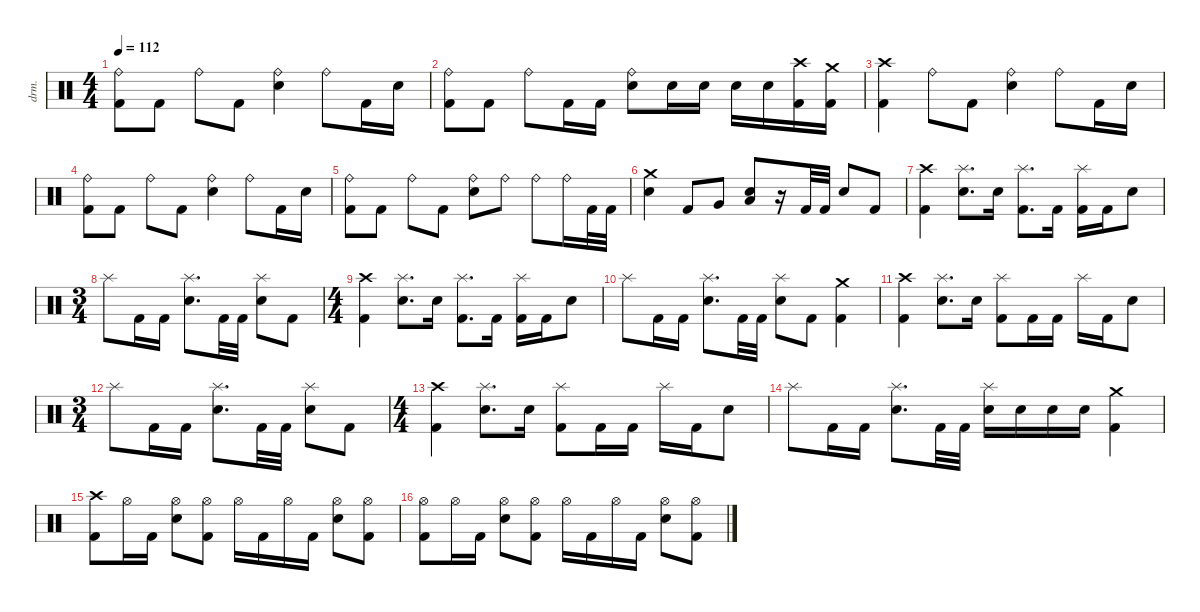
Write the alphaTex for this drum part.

\defaultSystemsLayout 4
\hideDynamics
\bracketExtendMode nobrackets
\otherSystemsTrackNameOrientation horizontal
\track ("Mike Portnoy" "drm.") {instrument percussion}
\staff {score}
\articulation defaults
\ts (4 4)
\tempo 112
\clef neutral
\ks c
("Kick (hit) 2" "Ride (bell)").8{dy f beam Down} "Kick (hit) 2".8{beam Down} "Ride (bell)".8{beam Down} "Kick (hit) 2".8{beam Down} ("Snare (hit) 2" "Ride (bell)").4{beam Down} "Ride (bell)".8{beam Down} "Kick (hit) 2".16{beam Down} "Snare (hit) 2".16{beam Down} |
("Kick (hit) 2" "Ride (bell)").8{beam Down} "Kick (hit) 2".8{beam Down} "Ride (bell)".8{beam Down} "Kick (hit) 2".16{beam Down} "Kick (hit) 2".16{beam Down} ("Snare (hit) 2" "Ride (bell)").8{beam Down} "Snare (hit) 2".16{beam Down} "Snare (hit) 2".16{beam Down} "Snare (hit) 2".16{beam Down} "Snare (hit) 2".16{beam Down} ("Kick (hit) 2" "Crash high (hit)").16{beam Down} ("Kick (hit) 2" "Crash medium (hit)").16{beam Down} |
("Kick (hit) 2" "Crash high (hit)").4{beam Down} "Ride (bell)".8{beam Down} "Kick (hit) 2".8{beam Down} ("Snare (hit) 2" "Ride (bell)").4{beam Down} "Ride (bell)".8{beam Down} "Kick (hit) 2".16{beam Down} "Snare (hit) 2".16{beam Down} |
("Kick (hit) 2" "Ride (bell)").8{beam Down} "Kick (hit) 2".8{beam Down} "Ride (bell)".8{beam Down} "Kick (hit) 2".8{beam Down} ("Snare (hit) 2" "Ride (bell)").4{beam Down} "Ride (bell)".8{beam Down} "Kick (hit) 2".16{beam Down} "Snare (hit) 2".16{beam Down} |
("Kick (hit) 2" "Ride (bell)").8{beam Down} "Kick (hit) 2".8{beam Down} "Ride (bell)".8{beam Down} "Kick (hit) 2".8{beam Down} ("Snare (hit) 2" "Ride (bell)").8{beam Down} "Ride (bell)".8{beam Down} "Ride (bell)".8{beam Down} "Ride (bell)".16{beam Down} "Kick (hit) 2".32{beam Down} "Kick (hit) 2".32{beam Down} |
("Snare (hit) 2" "Crash medium (hit)").4{beam Down} "Kick (hit) 2".8{beam Up} "Very Low Tom (hit)".8{beam Up} ("Snare (hit) 2" "Low Tom (hit)").8{beam Up} r.16{beam Up} "Kick (hit) 2".32{beam Up} "Kick (hit) 2".32{beam Up} "Snare (hit) 2".8{beam Up} "Kick (hit) 2".8{beam Up} |
("Kick (hit) 2" "Crash high (hit)").4{beam Down} ("Snare (hit) 2" "Splash (hit)").8{d beam Down} "Snare (hit) 2".16{beam Down} ("Kick (hit) 2" "Splash (hit)").8{d beam Down} "Kick (hit) 2".16{beam Down} ("Kick (hit) 2" "Splash (hit)").16{beam Down} "Kick (hit) 2".16{beam Down} "Snare (hit) 2".8{beam Down} |
\ts (3 4)
\beaming (8 2 2 2)
"Splash (hit)".8{beam Down} "Kick (hit) 2".16{beam Down} "Kick (hit) 2".16{beam Down} ("Snare (hit) 2" "Splash (hit)").8{d beam Down} "Kick (hit) 2".32{beam Down} "Kick (hit) 2".32{beam Down} ("Snare (hit) 2" "Splash (hit)").8{beam Down} "Kick (hit) 2".8{beam Down} |
\ts (4 4)
\beaming (8 2 2 2 2)
("Kick (hit) 2" "Crash high (hit)").4{beam Down} ("Snare (hit) 2" "Splash (hit)").8{d beam Down} "Snare (hit) 2".16{beam Down} ("Kick (hit) 2" "Splash (hit)").8{d beam Down} "Kick (hit) 2".16{beam Down} ("Kick (hit) 2" "Splash (hit)").16{beam Down} "Kick (hit) 2".16{beam Down} "Snare (hit) 2".8{beam Down} |
"Splash (hit)".8{beam Down} "Kick (hit) 2".16{beam Down} "Kick (hit) 2".16{beam Down} ("Snare (hit) 2" "Splash (hit)").8{d beam Down} "Kick (hit) 2".32{beam Down} "Kick (hit) 2".32{beam Down} ("Snare (hit) 2" "Splash (hit)").8{beam Down} "Kick (hit) 2".8{beam Down} ("Kick (hit) 2" "Crash medium (hit)").4{beam Down} |
("Kick (hit) 2" "Crash high (hit)").4{beam Down} ("Snare (hit) 2" "Splash (hit)").8{d beam Down} "Snare (hit) 2".16{beam Down} ("Kick (hit) 2" "Splash (hit)").8{beam Down} "Kick (hit) 2".16{beam Down} "Kick (hit) 2".16{beam Down} "Splash (hit)".16{beam Down} "Kick (hit) 2".16{beam Down} "Snare (hit) 2".8{beam Down} |
\ts (3 4)
\beaming (8 2 2 2)
"Splash (hit)".8{beam Down} "Kick (hit) 2".16{beam Down} "Kick (hit) 2".16{beam Down} ("Snare (hit) 2" "Splash (hit)").8{d beam Down} "Kick (hit) 2".32{beam Down} "Kick (hit) 2".32{beam Down} ("Snare (hit) 2" "Splash (hit)").8{beam Down} "Kick (hit) 2".8{beam Down} |
\ts (4 4)
\beaming (8 2 2 2 2)
("Kick (hit) 2" "Crash high (hit)").4{beam Down} ("Snare (hit) 2" "Splash (hit)").8{d beam Down} "Snare (hit) 2".16{beam Down} ("Kick (hit) 2" "Splash (hit)").8{beam Down} "Kick (hit) 2".16{beam Down} "Kick (hit) 2".16{beam Down} "Splash (hit)".16{beam Down} "Kick (hit) 2".16{beam Down} "Snare (hit) 2".8{beam Down} |
"Splash (hit)".8{beam Down} "Kick (hit) 2".16{beam Down} "Kick (hit) 2".16{beam Down} ("Snare (hit) 2" "Splash (hit)").8{d beam Down} "Kick (hit) 2".32{beam Down} "Kick (hit) 2".32{beam Down} ("Snare (hit) 2" "Splash (hit)").16{beam Down} "Snare (hit) 2".16{beam Down} "Snare (hit) 2".16{beam Down} "Snare (hit) 2".16{beam Down} ("Kick (hit) 2" "Crash medium (hit)").4{beam Down} |
("Kick (hit) 2" "Crash high (hit)").8{beam Down} "Hi-Hat (open)".16{beam Down} "Kick (hit) 2".16{beam Down} ("Snare (hit) 2" "Hi-Hat (open)").8{beam Down} ("Kick (hit) 2" "Hi-Hat (open)").8{beam Down} "Hi-Hat (open)".16{beam Down} "Kick (hit) 2".16{beam Down} "Hi-Hat (open)".16{beam Down} "Kick (hit) 2".16{beam Down} ("Snare (hit) 2" "Hi-Hat (open)").8{beam Down} ("Kick (hit) 2" "Hi-Hat (open)").8{beam Down} |
("Kick (hit) 2" "Hi-Hat (open)").8{beam Down} "Hi-Hat (open)".16{beam Down} "Kick (hit) 2".16{beam Down} ("Snare (hit) 2" "Hi-Hat (open)").8{beam Down} ("Kick (hit) 2" "Hi-Hat (open)").8{beam Down} "Hi-Hat (open)".16{beam Down} "Kick (hit) 2".16{beam Down} "Hi-Hat (open)".16{beam Down} "Kick (hit) 2".16{beam Down} ("Snare (hit) 2" "Hi-Hat (open)").8{beam Down} ("Kick (hit) 2" "Hi-Hat (open)").8{beam Down}
